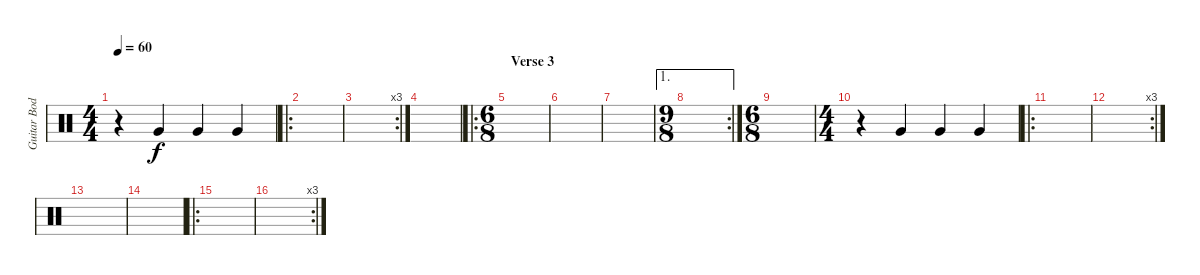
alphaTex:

\track ("Guitar Body" "Guitar Bod") {instrument percussion}
\staff {score}
\articulation defaults
\ts (4 4)
\tempo 60
\clef neutral
\ks c
r.4{dy f} "Very Low Tom (hit)".4 "Very Low Tom (hit)".4 "Very Low Tom (hit)".4 |
\ro
|
\rc 3
|
|
\ro
\ts (6 8)
\section ("" "Verse 3")
|
|
|
\ae 1
\rc 2
\ts (9 8)
|
\ts (6 8)
|
\ts (4 4)
r.4 "Very Low Tom (hit)".4 "Very Low Tom (hit)".4 "Very Low Tom (hit)".4 |
\ro
|
\rc 3
|
|
|
\ro
|
\rc 3
